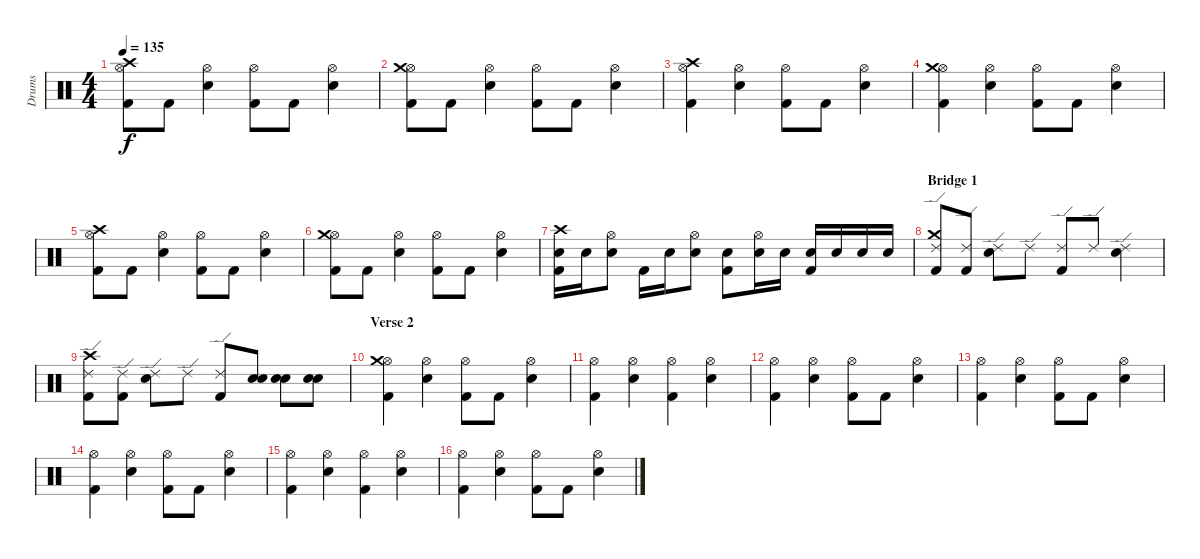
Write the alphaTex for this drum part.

\track ("Drums" "Drums") {instrument percussion}
\staff {score}
\articulation defaults
\ts (4 4)
\tempo 135
\clef neutral
\ks c
("Hi-Hat (open)" "Crash high (hit)" "Kick (hit) 2").8{dy f} "Kick (hit) 2".8 ("Hi-Hat (open)" "Snare (hit) 2").4 ("Hi-Hat (open)" "Kick (hit) 2").8 "Kick (hit) 2".8 ("Hi-Hat (open)" "Snare (hit) 2").4 |
("Hi-Hat (open)" "Crash medium (hit)" "Kick (hit) 2").8 "Kick (hit) 2".8 ("Hi-Hat (open)" "Snare (hit) 2").4 ("Hi-Hat (open)" "Kick (hit) 2").8 "Kick (hit) 2".8 ("Hi-Hat (open)" "Snare (hit) 2").4 |
("Hi-Hat (open)" "Crash high (hit)" "Kick (hit) 2").4 ("Hi-Hat (open)" "Snare (hit) 2").4 ("Hi-Hat (open)" "Kick (hit) 2").8 "Kick (hit) 2".8 ("Hi-Hat (open)" "Snare (hit) 2").4 |
("Hi-Hat (open)" "Crash medium (hit)" "Kick (hit) 2").4 ("Hi-Hat (open)" "Snare (hit) 2").4 ("Hi-Hat (open)" "Kick (hit) 2").8 "Kick (hit) 2".8 ("Hi-Hat (open)" "Snare (hit) 2").4 |
("Hi-Hat (open)" "Crash high (hit)" "Kick (hit) 2").8 "Kick (hit) 2".8 ("Hi-Hat (open)" "Snare (hit) 2").4 ("Hi-Hat (open)" "Kick (hit) 2").8 "Kick (hit) 2".8 ("Hi-Hat (open)" "Snare (hit) 2").4 |
("Hi-Hat (open)" "Crash medium (hit)" "Kick (hit) 2").8 "Kick (hit) 2".8 ("Hi-Hat (open)" "Snare (hit) 2").4 ("Hi-Hat (open)" "Kick (hit) 2").8 "Kick (hit) 2".8 ("Hi-Hat (open)" "Snare (hit) 2").4 |
("Crash high (hit)" "Snare (hit) 2" "Kick (hit) 2").16 "Snare (hit) 2".16 ("Hi-Hat (open)" "Snare (hit) 2").8 "Kick (hit) 2".16 "Snare (hit) 2".16 ("Hi-Hat (open)" "Snare (hit) 2").8 ("Snare (hit) 2" "Kick (hit) 2").8 ("Hi-Hat (open)" "Snare (hit) 2").16 "Snare (hit) 2".16 ("Snare (hit) 2" "Kick (hit) 2").16 "Snare (hit) 2".16 "Snare (hit) 2".16 "Snare (hit) 2".16 |
\section ("" "Bridge 1")
("Ride (edge) 2" "Crash medium (hit)" "Kick (hit) 2").8 ("Ride (edge) 2" "Kick (hit) 2").8 ("Ride (edge) 2" "Snare (hit) 2").8 "Ride (edge) 2".8 ("Ride (edge) 2" "Kick (hit) 2").8 "Ride (edge) 2".8 ("Ride (edge) 2" "Snare (hit) 2").4 |
("Ride (edge) 2" "Crash high (hit)" "Kick (hit) 2").8 ("Ride (edge) 2" "Kick (hit) 2").8 ("Ride (edge) 2" "Snare (hit) 2").8 "Ride (edge) 2".8 ("Ride (edge) 2" "Kick (hit) 2").8 ("Snare (hit) 2" "Snare (hit) 2").8 ("Snare (hit) 2" "Snare (hit) 2").8 ("Snare (hit) 2" "Snare (hit) 2").8 |
\section ("" "Verse 2")
("Hi-Hat (open)" "Crash medium (hit)" "Kick (hit) 2").4 ("Hi-Hat (open)" "Snare (hit) 2").4 ("Hi-Hat (open)" "Kick (hit) 2").8 "Kick (hit) 2".8 ("Hi-Hat (open)" "Snare (hit) 2").4 |
("Hi-Hat (open)" "Kick (hit) 2").4 ("Hi-Hat (open)" "Snare (hit) 2").4 ("Hi-Hat (open)" "Kick (hit) 2").4 ("Hi-Hat (open)" "Snare (hit) 2").4 |
("Hi-Hat (open)" "Kick (hit) 2").4 ("Hi-Hat (open)" "Snare (hit) 2").4 ("Hi-Hat (open)" "Kick (hit) 2").8 "Kick (hit) 2".8 ("Hi-Hat (open)" "Snare (hit) 2").4 |
("Hi-Hat (open)" "Kick (hit) 2").4 ("Hi-Hat (open)" "Snare (hit) 2").4 ("Hi-Hat (open)" "Kick (hit) 2").8 "Kick (hit) 2".8 ("Hi-Hat (open)" "Snare (hit) 2").4 |
("Hi-Hat (open)" "Kick (hit) 2").4 ("Hi-Hat (open)" "Snare (hit) 2").4 ("Hi-Hat (open)" "Kick (hit) 2").8 "Kick (hit) 2".8 ("Hi-Hat (open)" "Snare (hit) 2").4 |
("Hi-Hat (open)" "Kick (hit) 2").4 ("Hi-Hat (open)" "Snare (hit) 2").4 ("Hi-Hat (open)" "Kick (hit) 2").4 ("Hi-Hat (open)" "Snare (hit) 2").4 |
("Hi-Hat (open)" "Kick (hit) 2").4 ("Hi-Hat (open)" "Snare (hit) 2").4 ("Hi-Hat (open)" "Kick (hit) 2").8 "Kick (hit) 2".8 ("Hi-Hat (open)" "Snare (hit) 2").4
